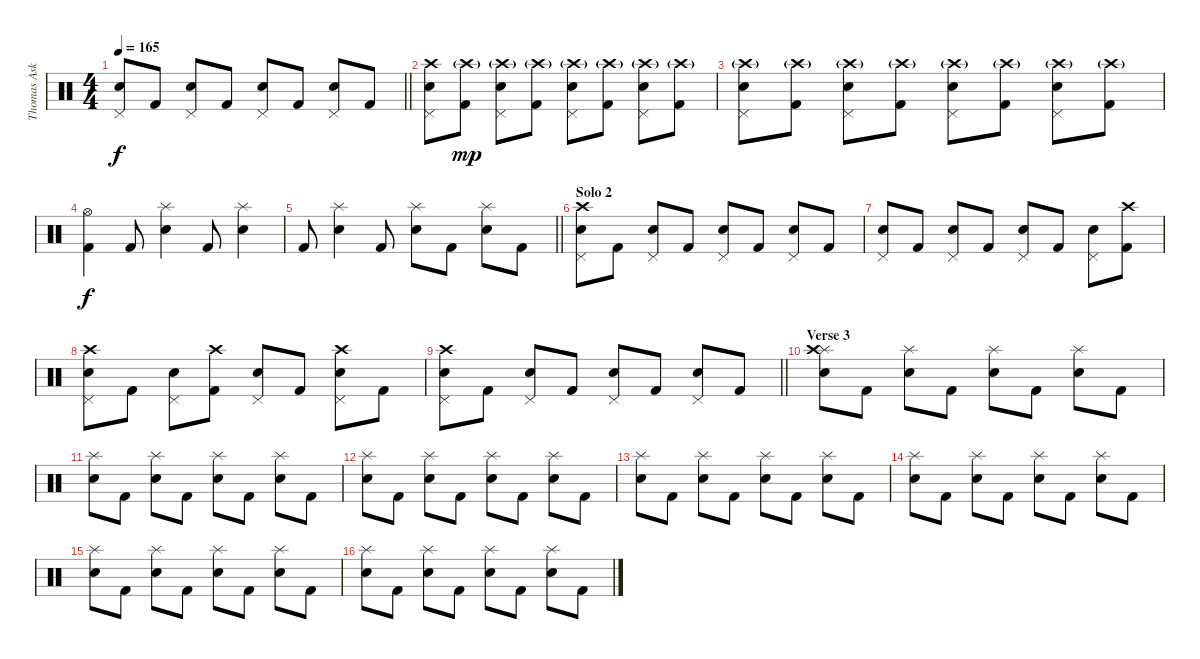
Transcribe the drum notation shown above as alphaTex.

\track ("Thomas Asklund" "Thomas Ask") {instrument percussion}
\staff {score}
\articulation defaults
\ts (4 4)
\tempo 165
\clef neutral
\barLineRight lightlight
\ks c
("Snare (hit) 2" "Pedal Hi-Hat (hit)").8{dy f} "Kick (hit) 2".8 ("Snare (hit) 2" "Pedal Hi-Hat (hit)").8 "Kick (hit) 2".8 ("Snare (hit) 2" "Pedal Hi-Hat (hit)").8 "Kick (hit) 2".8 ("Snare (hit) 2" "Pedal Hi-Hat (hit)").8 "Kick (hit) 2".8 |
("Crash high (hit)" "Snare (hit) 2" "Pedal Hi-Hat (hit)").8 ("Crash high (hit)"{g} "Kick (hit) 2").8{dy mp} ("Crash high (hit)"{g} "Snare (hit) 2" "Pedal Hi-Hat (hit)").8 ("Crash high (hit)"{g} "Kick (hit) 2").8 ("Crash high (hit)"{g} "Snare (hit) 2" "Pedal Hi-Hat (hit)").8 ("Crash high (hit)"{g} "Kick (hit) 2").8 ("Crash high (hit)"{g} "Snare (hit) 2" "Pedal Hi-Hat (hit)").8 ("Crash high (hit)"{g} "Kick (hit) 2").8 |
("Crash high (hit)"{g} "Snare (hit) 2" "Pedal Hi-Hat (hit)").8 ("Crash high (hit)"{g} "Kick (hit) 2").8 ("Crash high (hit)"{g} "Snare (hit) 2" "Pedal Hi-Hat (hit)").8 ("Crash high (hit)"{g} "Kick (hit) 2").8 ("Crash high (hit)"{g} "Snare (hit) 2" "Pedal Hi-Hat (hit)").8 ("Crash high (hit)"{g} "Kick (hit) 2").8 ("Crash high (hit)"{g} "Snare (hit) 2" "Pedal Hi-Hat (hit)").8 ("Crash high (hit)"{g} "Kick (hit) 2").8 |
("Hi-Hat (open)" "Kick (hit) 2").4{dy f} "Kick (hit) 2".8 ("Splash (hit)" "Snare (hit) 2").4 "Kick (hit) 2".8 ("Splash (hit)" "Snare (hit) 2").4 |
\barLineRight lightlight "Kick (hit) 2".8
("Splash (hit)" "Snare (hit) 2").4 "Kick (hit) 2".8 ("Splash (hit)" "Snare (hit) 2").8 "Kick (hit) 2".8 ("Splash (hit)" "Snare (hit) 2").8 "Kick (hit) 2".8 |
\section ("" "Solo 2")
("Crash high (hit)" "Snare (hit) 2" "Pedal Hi-Hat (hit)").8 "Kick (hit) 2".8 ("Snare (hit) 2" "Pedal Hi-Hat (hit)").8 "Kick (hit) 2".8 ("Snare (hit) 2" "Pedal Hi-Hat (hit)").8 "Kick (hit) 2".8 ("Snare (hit) 2" "Pedal Hi-Hat (hit)").8 "Kick (hit) 2".8 |
("Snare (hit) 2" "Pedal Hi-Hat (hit)").8 "Kick (hit) 2".8 ("Snare (hit) 2" "Pedal Hi-Hat (hit)").8 "Kick (hit) 2".8 ("Snare (hit) 2" "Pedal Hi-Hat (hit)").8 "Kick (hit) 2".8 ("Snare (hit) 2" "Pedal Hi-Hat (hit)").8 ("Crash high (hit)" "Kick (hit) 2").8 |
("Crash high (hit)" "Snare (hit) 2" "Pedal Hi-Hat (hit)").8 "Kick (hit) 2".8 ("Snare (hit) 2" "Pedal Hi-Hat (hit)").8 ("Crash high (hit)" "Kick (hit) 2").8 ("Snare (hit) 2" "Pedal Hi-Hat (hit)").8 "Kick (hit) 2".8 ("Crash high (hit)" "Snare (hit) 2" "Pedal Hi-Hat (hit)").8 "Kick (hit) 2".8 |
\barLineRight lightlight
("Crash high (hit)" "Snare (hit) 2" "Pedal Hi-Hat (hit)").8 "Kick (hit) 2".8 ("Snare (hit) 2" "Pedal Hi-Hat (hit)").8 "Kick (hit) 2".8 ("Snare (hit) 2" "Pedal Hi-Hat (hit)").8 "Kick (hit) 2".8 ("Snare (hit) 2" "Pedal Hi-Hat (hit)").8 "Kick (hit) 2".8 |
\section ("" "Verse 3")
("Splash (hit)" "Crash high (hit)" "Snare (hit) 2").8 "Kick (hit) 2".8 ("Splash (hit)" "Snare (hit) 2").8 "Kick (hit) 2".8 ("Splash (hit)" "Snare (hit) 2").8 "Kick (hit) 2".8 ("Splash (hit)" "Snare (hit) 2").8 "Kick (hit) 2".8 |
("Splash (hit)" "Snare (hit) 2").8 "Kick (hit) 2".8 ("Splash (hit)" "Snare (hit) 2").8 "Kick (hit) 2".8 ("Splash (hit)" "Snare (hit) 2").8 "Kick (hit) 2".8 ("Splash (hit)" "Snare (hit) 2").8 "Kick (hit) 2".8 |
("Splash (hit)" "Snare (hit) 2").8 "Kick (hit) 2".8 ("Splash (hit)" "Snare (hit) 2").8 "Kick (hit) 2".8 ("Splash (hit)" "Snare (hit) 2").8 "Kick (hit) 2".8 ("Splash (hit)" "Snare (hit) 2").8 "Kick (hit) 2".8 |
("Splash (hit)" "Snare (hit) 2").8 "Kick (hit) 2".8 ("Splash (hit)" "Snare (hit) 2").8 "Kick (hit) 2".8 ("Splash (hit)" "Snare (hit) 2").8 "Kick (hit) 2".8 ("Splash (hit)" "Snare (hit) 2").8 "Kick (hit) 2".8 |
("Splash (hit)" "Snare (hit) 2").8 "Kick (hit) 2".8 ("Splash (hit)" "Snare (hit) 2").8 "Kick (hit) 2".8 ("Splash (hit)" "Snare (hit) 2").8 "Kick (hit) 2".8 ("Splash (hit)" "Snare (hit) 2").8 "Kick (hit) 2".8 |
("Splash (hit)" "Snare (hit) 2").8 "Kick (hit) 2".8 ("Splash (hit)" "Snare (hit) 2").8 "Kick (hit) 2".8 ("Splash (hit)" "Snare (hit) 2").8 "Kick (hit) 2".8 ("Splash (hit)" "Snare (hit) 2").8 "Kick (hit) 2".8 |
("Splash (hit)" "Snare (hit) 2").8 "Kick (hit) 2".8 ("Splash (hit)" "Snare (hit) 2").8 "Kick (hit) 2".8 ("Splash (hit)" "Snare (hit) 2").8 "Kick (hit) 2".8 ("Splash (hit)" "Snare (hit) 2").8 "Kick (hit) 2".8
